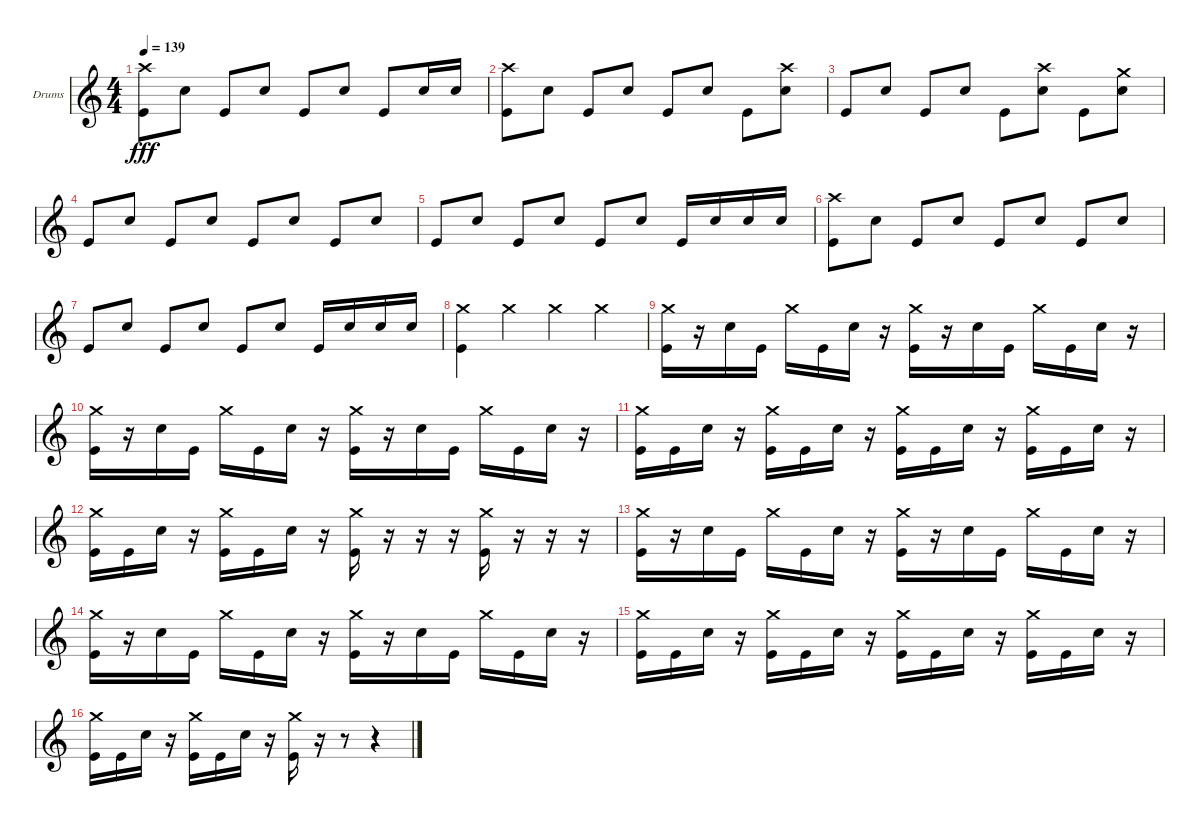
\defaultSystemsLayout 4
\bracketExtendMode groupsimilarinstruments
\firstSystemTrackNameOrientation horizontal
\otherSystemsTrackNameOrientation horizontal
\track ("Drumkit" "Drums") {instrument percussion}
\staff {score}
\articulation defaults
\ts (4 4)
\tempo 139
\clef g2
\ks c
("Kick (hit)" "Crash high (hit)").8{dy fff} "Snare (hit) 2".8 "Kick (hit)".8 "Snare (hit) 2".8 "Kick (hit)".8 "Snare (hit) 2".8 "Kick (hit)".8 "Snare (hit) 2".16 "Snare (hit) 2".16 |
("Kick (hit)" "Crash high (hit)").8 "Snare (hit) 2".8 "Kick (hit)".8 "Snare (hit) 2".8 "Kick (hit)".8 "Snare (hit) 2".8 "Kick (hit)".8 ("Snare (hit) 2" "Crash high (hit)").8 |
"Kick (hit)".8 "Snare (hit) 2".8 "Kick (hit)".8 "Snare (hit) 2".8 "Kick (hit)".8 ("Crash high (hit)" "Snare (hit) 2").8 "Kick (hit)".8 ("Snare (hit) 2" "Crash medium (hit)").8 |
"Kick (hit)".8 "Snare (hit) 2".8 "Kick (hit)".8 "Snare (hit) 2".8 "Kick (hit)".8 "Snare (hit) 2".8 "Kick (hit)".8 "Snare (hit) 2".8 |
"Kick (hit)".8 "Snare (hit) 2".8 "Kick (hit)".8 "Snare (hit) 2".8 "Kick (hit)".8 "Snare (hit) 2".8 "Kick (hit)".16 "Snare (hit) 2".16 "Snare (hit) 2".16 "Snare (hit) 2".16 |
("Crash high (hit)" "Kick (hit)").8 "Snare (hit) 2".8 "Kick (hit)".8 "Snare (hit) 2".8 "Kick (hit)".8 "Snare (hit) 2".8 "Kick (hit)".8 "Snare (hit) 2".8 |
"Kick (hit)".8 "Snare (hit) 2".8 "Kick (hit)".8 "Snare (hit) 2".8 "Kick (hit)".8 "Snare (hit) 2".8 "Kick (hit)".16 "Snare (hit) 2".16 "Snare (hit) 2".16 "Snare (hit) 2".16 |
("Kick (hit)" "Crash medium (hit)").4 "Crash medium (hit)".4 "Crash medium (hit)".4 "Crash medium (hit)".4 |
("Kick (hit)" "Crash medium (hit)").16 r.16 "Snare (hit) 2".16 "Kick (hit)".16 "Crash medium (hit)".16 "Kick (hit)".16 "Snare (hit) 2".16 r.16 ("Kick (hit)" "Crash medium (hit)").16 r.16 "Snare (hit) 2".16 "Kick (hit)".16 "Crash medium (hit)".16 "Kick (hit)".16 "Snare (hit) 2".16 r.16 |
("Kick (hit)" "Crash medium (hit)").16 r.16 "Snare (hit) 2".16 "Kick (hit)".16 "Crash medium (hit)".16 "Kick (hit)".16 "Snare (hit) 2".16 r.16 ("Kick (hit)" "Crash medium (hit)").16 r.16 "Snare (hit) 2".16 "Kick (hit)".16 "Crash medium (hit)".16 "Kick (hit)".16 "Snare (hit) 2".16 r.16 |
("Kick (hit)" "Crash medium (hit)").16 "Kick (hit)".16 "Snare (hit) 2".16 r.16 ("Kick (hit)" "Crash medium (hit)").16 "Kick (hit)".16 "Snare (hit) 2".16 r.16 ("Kick (hit)" "Crash medium (hit)").16 "Kick (hit)".16 "Snare (hit) 2".16 r.16 ("Kick (hit)" "Crash medium (hit)").16 "Kick (hit)".16 "Snare (hit) 2".16 r.16 |
("Kick (hit)" "Crash medium (hit)").16 "Kick (hit)".16 "Snare (hit) 2".16 r.16 ("Kick (hit)" "Crash medium (hit)").16 "Kick (hit)".16 "Snare (hit) 2".16 r.16 ("Kick (hit)" "Crash medium (hit)").16 r.16 r.16 r.16 ("Kick (hit)" "Crash medium (hit)").16 r.16 r.16 r.16 |
("Kick (hit)" "Crash medium (hit)").16 r.16 "Snare (hit) 2".16 "Kick (hit)".16 "Crash medium (hit)".16 "Kick (hit)".16 "Snare (hit) 2".16 r.16 ("Kick (hit)" "Crash medium (hit)").16 r.16 "Snare (hit) 2".16 "Kick (hit)".16 "Crash medium (hit)".16 "Kick (hit)".16 "Snare (hit) 2".16 r.16 |
("Kick (hit)" "Crash medium (hit)").16 r.16 "Snare (hit) 2".16 "Kick (hit)".16 "Crash medium (hit)".16 "Kick (hit)".16 "Snare (hit) 2".16 r.16 ("Kick (hit)" "Crash medium (hit)").16 r.16 "Snare (hit) 2".16 "Kick (hit)".16 "Crash medium (hit)".16 "Kick (hit)".16 "Snare (hit) 2".16 r.16 |
("Kick (hit)" "Crash medium (hit)").16 "Kick (hit)".16 "Snare (hit) 2".16 r.16 ("Kick (hit)" "Crash medium (hit)").16 "Kick (hit)".16 "Snare (hit) 2".16 r.16 ("Kick (hit)" "Crash medium (hit)").16 "Kick (hit)".16 "Snare (hit) 2".16 r.16 ("Kick (hit)" "Crash medium (hit)").16 "Kick (hit)".16 "Snare (hit) 2".16 r.16 |
("Kick (hit)" "Crash medium (hit)").16 "Kick (hit)".16 "Snare (hit) 2".16 r.16 ("Kick (hit)" "Crash medium (hit)").16 "Kick (hit)".16 "Snare (hit) 2".16 r.16 ("Kick (hit)" "Crash medium (hit)").16 r.16 r.8 r.4
